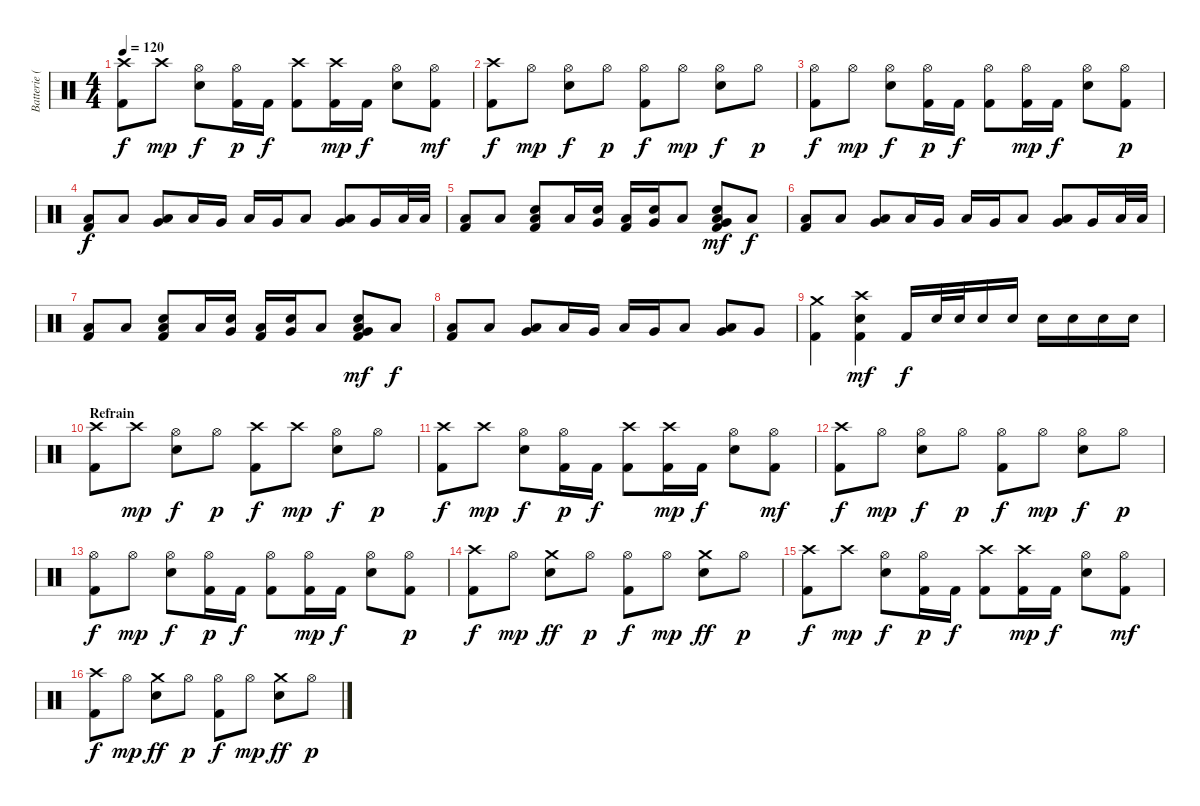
\track ("Batterie (Racci \"Sketchy\" Shay)" "Batterie (") {instrument percussion}
\staff {score}
\articulation defaults
\ts (4 4)
\tempo 120
\clef neutral
\ks c
("Crash high (hit)" "Kick (hit) 2").8{dy f} "Crash high (hit)".8{dy mp} ("Hi-Hat (open)" "Electric Snare (hit)").8{dy f} ("Hi-Hat (open)" "Kick (hit) 2").16{dy p} "Kick (hit) 2".16{dy f} ("Crash high (hit)" "Kick (hit) 2").8 ("Crash high (hit)" "Kick (hit) 2").16{dy mp} "Kick (hit) 2".16{dy f} ("Hi-Hat (open)" "Electric Snare (hit)").8 ("Hi-Hat (open)" "Kick (hit) 2").8{dy mf} |
("Crash high (hit)" "Kick (hit) 2").8{dy f} "Hi-Hat (open)".8{dy mp} ("Hi-Hat (open)" "Electric Snare (hit)").8{dy f} "Hi-Hat (open)".8{dy p} ("Hi-Hat (open)" "Kick (hit) 2").8{dy f} "Hi-Hat (open)".8{dy mp} ("Hi-Hat (open)" "Electric Snare (hit)").8{dy f} "Hi-Hat (open)".8{dy p} |
("Hi-Hat (open)" "Kick (hit) 2").8{dy f} "Hi-Hat (open)".8{dy mp} ("Hi-Hat (open)" "Electric Snare (hit)").8{dy f} ("Hi-Hat (open)" "Kick (hit) 2").16{dy p} "Kick (hit) 2".16{dy f} ("Hi-Hat (open)" "Kick (hit) 2").8 ("Hi-Hat (open)" "Kick (hit) 2").16{dy mp} "Kick (hit) 2".16{dy f} ("Hi-Hat (open)" "Electric Snare (hit)").8 ("Hi-Hat (open)" "Kick (hit) 2").8{dy p} |
("Low Floor Tom (hit)" "Kick (hit) 2").8{dy f} "Low Floor Tom (hit)".8 ("Very Low Tom (hit)" "Low Floor Tom (hit)").8 "Low Floor Tom (hit)".16 "Very Low Tom (hit)".16 "Low Floor Tom (hit)".16 "Very Low Tom (hit)".16 "Low Floor Tom (hit)".8 ("Very Low Tom (hit)" "Low Floor Tom (hit)").8 "Very Low Tom (hit)".16 "Low Floor Tom (hit)".32 "Low Floor Tom (hit)".32 |
("Low Floor Tom (hit)" "Kick (hit) 2").8 "Low Floor Tom (hit)".8 ("Hand Clap (hit)" "Low Floor Tom (hit)" "Kick (hit) 2").8 "Low Floor Tom (hit)".16 ("Hand Clap (hit)" "Very Low Tom (hit)").16 ("Low Floor Tom (hit)" "Kick (hit) 2").16 ("Hand Clap (hit)" "Very Low Tom (hit)").16 "Low Floor Tom (hit)".8 ("Hand Clap (hit)" "Very Low Tom (hit)" "Low Floor Tom (hit)" "Kick (hit) 2").8{dy mf} "Low Floor Tom (hit)".8{dy f} |
("Low Floor Tom (hit)" "Kick (hit) 2").8 "Low Floor Tom (hit)".8 ("Very Low Tom (hit)" "Low Floor Tom (hit)").8 "Low Floor Tom (hit)".16 "Very Low Tom (hit)".16 "Low Floor Tom (hit)".16 "Very Low Tom (hit)".16 "Low Floor Tom (hit)".8 ("Very Low Tom (hit)" "Low Floor Tom (hit)").8 "Very Low Tom (hit)".16 "Low Floor Tom (hit)".32 "Low Floor Tom (hit)".32 |
("Low Floor Tom (hit)" "Kick (hit) 2").8 "Low Floor Tom (hit)".8 ("Hand Clap (hit)" "Low Floor Tom (hit)" "Kick (hit) 2").8 "Low Floor Tom (hit)".16 ("Hand Clap (hit)" "Very Low Tom (hit)").16 ("Low Floor Tom (hit)" "Kick (hit) 2").16 ("Hand Clap (hit)" "Very Low Tom (hit)").16 "Low Floor Tom (hit)".8 ("Hand Clap (hit)" "Very Low Tom (hit)" "Low Floor Tom (hit)" "Kick (hit) 2").8{dy mf} "Low Floor Tom (hit)".8{dy f} |
("Low Floor Tom (hit)" "Kick (hit) 2").8 "Low Floor Tom (hit)".8 ("Very Low Tom (hit)" "Low Floor Tom (hit)").8 "Low Floor Tom (hit)".16 "Very Low Tom (hit)".16 "Low Floor Tom (hit)".16 "Very Low Tom (hit)".16 "Low Floor Tom (hit)".8 ("Very Low Tom (hit)" "Low Floor Tom (hit)").8 "Very Low Tom (hit)".8 |
("Crash medium (hit)" "Kick (hit) 2").4 ("Crash high (hit)" "Electric Snare (hit)" "Kick (hit) 2").4{dy mf} "Kick (hit) 2".16{dy f} "Electric Snare (hit)".32 "Electric Snare (hit)".32 "Electric Snare (hit)".16 "Electric Snare (hit)".16 "Electric Snare (hit)".16 "Electric Snare (hit)".16 "Electric Snare (hit)".16 "Electric Snare (hit)".16 |
\section ("" "Refrain")
("Crash high (hit)" "Kick (hit) 2").8 "Crash high (hit)".8{dy mp} ("Hi-Hat (open)" "Electric Snare (hit)").8{dy f} "Hi-Hat (open)".8{dy p} ("Crash high (hit)" "Kick (hit) 2").8{dy f} "Crash high (hit)".8{dy mp} ("Hi-Hat (open)" "Electric Snare (hit)").8{dy f} "Hi-Hat (open)".8{dy p} |
("Crash high (hit)" "Kick (hit) 2").8{dy f} "Crash high (hit)".8{dy mp} ("Hi-Hat (open)" "Electric Snare (hit)").8{dy f} ("Hi-Hat (open)" "Kick (hit) 2").16{dy p} "Kick (hit) 2".16{dy f} ("Crash high (hit)" "Kick (hit) 2").8 ("Crash high (hit)" "Kick (hit) 2").16{dy mp} "Kick (hit) 2".16{dy f} ("Hi-Hat (open)" "Electric Snare (hit)").8 ("Hi-Hat (open)" "Kick (hit) 2").8{dy mf} |
("Crash high (hit)" "Kick (hit) 2").8{dy f} "Hi-Hat (open)".8{dy mp} ("Hi-Hat (open)" "Electric Snare (hit)").8{dy f} "Hi-Hat (open)".8{dy p} ("Hi-Hat (open)" "Kick (hit) 2").8{dy f} "Hi-Hat (open)".8{dy mp} ("Hi-Hat (open)" "Electric Snare (hit)").8{dy f} "Hi-Hat (open)".8{dy p} |
("Hi-Hat (open)" "Kick (hit) 2").8{dy f} "Hi-Hat (open)".8{dy mp} ("Hi-Hat (open)" "Electric Snare (hit)").8{dy f} ("Hi-Hat (open)" "Kick (hit) 2").16{dy p} "Kick (hit) 2".16{dy f} ("Hi-Hat (open)" "Kick (hit) 2").8 ("Hi-Hat (open)" "Kick (hit) 2").16{dy mp} "Kick (hit) 2".16{dy f} ("Hi-Hat (open)" "Electric Snare (hit)").8 ("Hi-Hat (open)" "Kick (hit) 2").8{dy p} |
("Crash high (hit)" "Kick (hit) 2").8{dy f} "Hi-Hat (open)".8{dy mp} ("Crash medium (hit)" "Electric Snare (hit)").8{dy ff} "Hi-Hat (open)".8{dy p} ("Hi-Hat (open)" "Kick (hit) 2").8{dy f} "Hi-Hat (open)".8{dy mp} ("Crash medium (hit)" "Electric Snare (hit)").8{dy ff} "Hi-Hat (open)".8{dy p} |
("Crash high (hit)" "Kick (hit) 2").8{dy f} "Crash high (hit)".8{dy mp} ("Hi-Hat (open)" "Electric Snare (hit)").8{dy f} ("Hi-Hat (open)" "Kick (hit) 2").16{dy p} "Kick (hit) 2".16{dy f} ("Crash high (hit)" "Kick (hit) 2").8 ("Crash high (hit)" "Kick (hit) 2").16{dy mp} "Kick (hit) 2".16{dy f} ("Hi-Hat (open)" "Electric Snare (hit)").8 ("Hi-Hat (open)" "Kick (hit) 2").8{dy mf} |
("Crash high (hit)" "Kick (hit) 2").8{dy f} "Hi-Hat (open)".8{dy mp} ("Crash medium (hit)" "Snare (hit) 2").8{dy ff} "Hi-Hat (open)".8{dy p} ("Hi-Hat (open)" "Kick (hit) 2").8{dy f} "Hi-Hat (open)".8{dy mp} ("Crash medium (hit)" "Electric Snare (hit)").8{dy ff} "Hi-Hat (open)".8{dy p}
